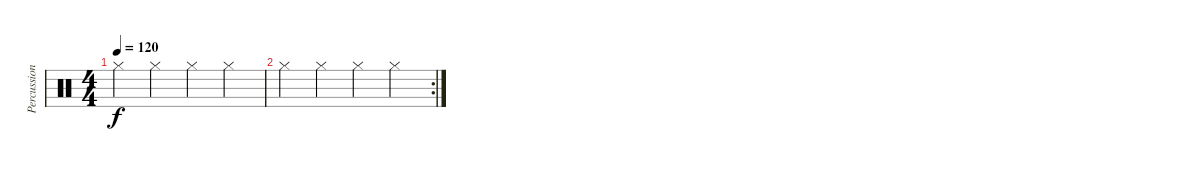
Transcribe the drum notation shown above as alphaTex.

\track ("Percussioni" "Percussion") {instrument percussion}
\staff {score}
\articulation defaults
\ts (4 4)
\tempo 120
\clef neutral
\ks c "Hi-Hat (closed)".4{dy f} "Hi-Hat (closed)".4 "Hi-Hat (closed)".4 "Hi-Hat (closed)".4
|
\rc 2 "Hi-Hat (closed)".4 "Hi-Hat (closed)".4 "Hi-Hat (closed)".4 "Hi-Hat (closed)".4
